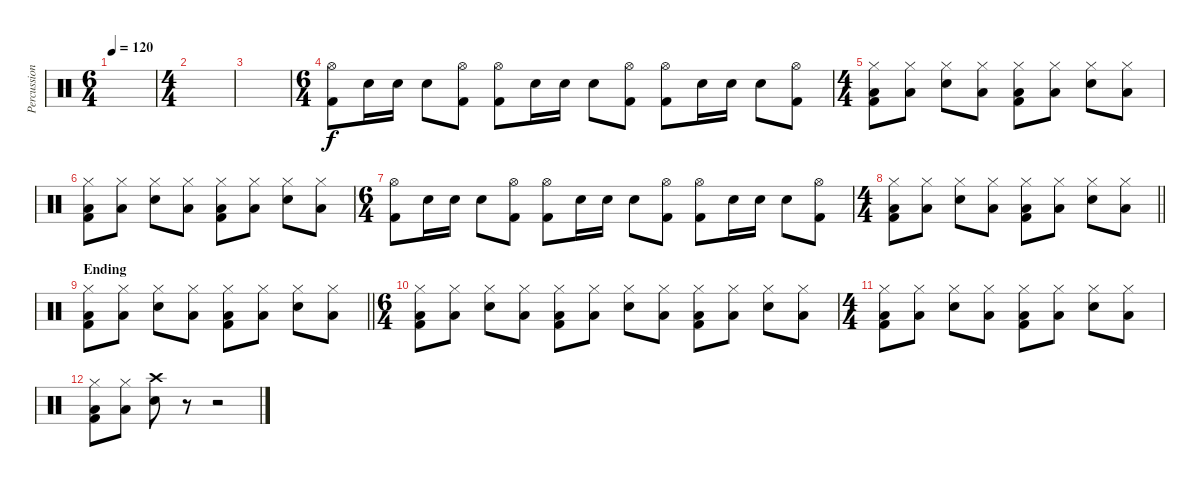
\track ("Percussion" "Percussion") {instrument percussion}
\staff
\articulation defaults
\ts (6 4)
\tempo 120
\clef neutral
\ks c
|
\ts (4 4)
|
|
\ts (6 4)
("Hi-Hat (open)" "Kick (hit) 2").8 "Snare (hit) 2".16 "Snare (hit) 2".16 "Snare (hit) 2".8 ("Hi-Hat (open)" "Kick (hit) 2").8 ("Hi-Hat (open)" "Kick (hit) 2").8 "Snare (hit) 2".16 "Snare (hit) 2".16 "Snare (hit) 2".8 ("Hi-Hat (open)" "Kick (hit) 2").8 ("Hi-Hat (open)" "Kick (hit) 2").8 "Snare (hit) 2".16 "Snare (hit) 2".16 "Snare (hit) 2".8 ("Hi-Hat (open)" "Kick (hit) 2").8 |
\ts (4 4)
("Hi-Hat (closed)" "Low Floor Tom (hit)" "Kick (hit) 2").8 ("Hi-Hat (closed)" "Low Floor Tom (hit)").8 ("Hi-Hat (closed)" "Snare (hit) 2").8 ("Hi-Hat (closed)" "Low Floor Tom (hit)").8 ("Hi-Hat (closed)" "Low Floor Tom (hit)" "Kick (hit) 2").8 ("Hi-Hat (closed)" "Low Floor Tom (hit)").8 ("Hi-Hat (closed)" "Snare (hit) 2").8 ("Hi-Hat (closed)" "Low Floor Tom (hit)").8 |
("Hi-Hat (closed)" "Low Floor Tom (hit)" "Kick (hit) 2").8 ("Hi-Hat (closed)" "Low Floor Tom (hit)").8 ("Hi-Hat (closed)" "Snare (hit) 2").8 ("Hi-Hat (closed)" "Low Floor Tom (hit)").8 ("Hi-Hat (closed)" "Low Floor Tom (hit)" "Kick (hit) 2").8 ("Hi-Hat (closed)" "Low Floor Tom (hit)").8 ("Hi-Hat (closed)" "Snare (hit) 2").8 ("Hi-Hat (closed)" "Low Floor Tom (hit)").8 |
\ts (6 4)
("Hi-Hat (open)" "Kick (hit) 2").8 "Snare (hit) 2".16 "Snare (hit) 2".16 "Snare (hit) 2".8 ("Hi-Hat (open)" "Kick (hit) 2").8 ("Hi-Hat (open)" "Kick (hit) 2").8 "Snare (hit) 2".16 "Snare (hit) 2".16 "Snare (hit) 2".8 ("Hi-Hat (open)" "Kick (hit) 2").8 ("Hi-Hat (open)" "Kick (hit) 2").8 "Snare (hit) 2".16 "Snare (hit) 2".16 "Snare (hit) 2".8 ("Hi-Hat (open)" "Kick (hit) 2").8 |
\ts (4 4)
\barLineRight lightlight
("Hi-Hat (closed)" "Low Floor Tom (hit)" "Kick (hit) 2").8 ("Hi-Hat (closed)" "Low Floor Tom (hit)").8 ("Hi-Hat (closed)" "Snare (hit) 2").8 ("Hi-Hat (closed)" "Low Floor Tom (hit)").8 ("Hi-Hat (closed)" "Low Floor Tom (hit)" "Kick (hit) 2").8 ("Hi-Hat (closed)" "Low Floor Tom (hit)").8 ("Hi-Hat (closed)" "Snare (hit) 2").8 ("Hi-Hat (closed)" "Low Floor Tom (hit)").8 |
\section ("" "Ending")
\barLineRight lightlight
("Hi-Hat (closed)" "Low Floor Tom (hit)" "Kick (hit) 2").8 ("Hi-Hat (closed)" "Low Floor Tom (hit)").8 ("Hi-Hat (closed)" "Snare (hit) 2").8 ("Hi-Hat (closed)" "Low Floor Tom (hit)").8 ("Hi-Hat (closed)" "Low Floor Tom (hit)" "Kick (hit) 2").8 ("Hi-Hat (closed)" "Low Floor Tom (hit)").8 ("Hi-Hat (closed)" "Snare (hit) 2").8 ("Hi-Hat (closed)" "Low Floor Tom (hit)").8 |
\ts (6 4)
("Hi-Hat (closed)" "Low Floor Tom (hit)" "Kick (hit) 2").8 ("Hi-Hat (closed)" "Low Floor Tom (hit)").8 ("Hi-Hat (closed)" "Snare (hit) 2").8 ("Hi-Hat (closed)" "Low Floor Tom (hit)").8 ("Hi-Hat (closed)" "Low Floor Tom (hit)" "Kick (hit) 2").8 ("Hi-Hat (closed)" "Low Floor Tom (hit)").8 ("Hi-Hat (closed)" "Snare (hit) 2").8 ("Hi-Hat (closed)" "Low Floor Tom (hit)").8 ("Hi-Hat (closed)" "Low Floor Tom (hit)" "Kick (hit) 2").8 ("Hi-Hat (closed)" "Low Floor Tom (hit)").8 ("Hi-Hat (closed)" "Snare (hit) 2").8 ("Hi-Hat (closed)" "Low Floor Tom (hit)").8 |
\ts (4 4)
("Hi-Hat (closed)" "Low Floor Tom (hit)" "Kick (hit) 2").8 ("Hi-Hat (closed)" "Low Floor Tom (hit)").8 ("Hi-Hat (closed)" "Snare (hit) 2").8 ("Hi-Hat (closed)" "Low Floor Tom (hit)").8 ("Hi-Hat (closed)" "Low Floor Tom (hit)" "Kick (hit) 2").8 ("Hi-Hat (closed)" "Low Floor Tom (hit)").8 ("Hi-Hat (closed)" "Snare (hit) 2").8 ("Hi-Hat (closed)" "Low Floor Tom (hit)").8 |
("Hi-Hat (closed)" "Low Floor Tom (hit)" "Kick (hit) 2").8 ("Hi-Hat (closed)" "Low Floor Tom (hit)").8 ("Crash high (hit)" "Snare (hit) 2").8 r.8 r.2
